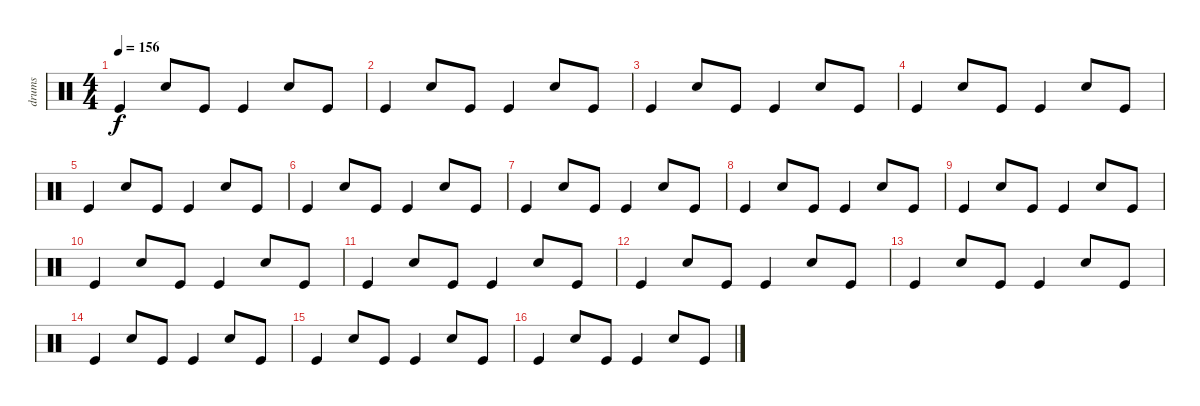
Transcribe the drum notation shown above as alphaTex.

\track ("drums" "drums") {instrument percussion}
\staff {score}
\articulation defaults
\ts (4 4)
\tempo 156
\clef neutral
\ks c "Kick (hit)".4{dy f} "Snare (hit) 2".8 "Kick (hit)".8 "Kick (hit)".4 "Snare (hit) 2".8 "Kick (hit)".8
|
"Kick (hit)".4 "Snare (hit) 2".8 "Kick (hit)".8 "Kick (hit)".4 "Snare (hit) 2".8 "Kick (hit)".8 |
"Kick (hit)".4 "Snare (hit) 2".8 "Kick (hit)".8 "Kick (hit)".4 "Snare (hit) 2".8 "Kick (hit)".8 |
"Kick (hit)".4 "Snare (hit) 2".8 "Kick (hit)".8 "Kick (hit)".4 "Electric Snare (hit)".8 "Kick (hit)".8 |
"Kick (hit)".4 "Snare (hit) 2".8 "Kick (hit)".8 "Kick (hit)".4 "Snare (hit) 2".8 "Kick (hit)".8 |
"Kick (hit)".4 "Snare (hit) 2".8 "Kick (hit)".8 "Kick (hit)".4 "Snare (hit) 2".8 "Kick (hit)".8 |
"Kick (hit)".4 "Snare (hit) 2".8 "Kick (hit)".8 "Kick (hit)".4 "Snare (hit) 2".8 "Kick (hit)".8 |
"Kick (hit)".4 "Snare (hit) 2".8 "Kick (hit)".8 "Kick (hit)".4 "Electric Snare (hit)".8 "Kick (hit)".8 |
"Kick (hit)".4 "Snare (hit) 2".8 "Kick (hit)".8 "Kick (hit)".4 "Snare (hit) 2".8 "Kick (hit)".8 |
"Kick (hit)".4 "Snare (hit) 2".8 "Kick (hit)".8 "Kick (hit)".4 "Snare (hit) 2".8 "Kick (hit)".8 |
"Kick (hit)".4 "Snare (hit) 2".8 "Kick (hit)".8 "Kick (hit)".4 "Snare (hit) 2".8 "Kick (hit)".8 |
"Kick (hit)".4 "Snare (hit) 2".8 "Kick (hit)".8 "Kick (hit)".4 "Electric Snare (hit)".8 "Kick (hit)".8 |
"Kick (hit)".4 "Snare (hit) 2".8 "Kick (hit)".8 "Kick (hit)".4 "Snare (hit) 2".8 "Kick (hit)".8 |
"Kick (hit)".4 "Snare (hit) 2".8 "Kick (hit)".8 "Kick (hit)".4 "Snare (hit) 2".8 "Kick (hit)".8 |
"Kick (hit)".4 "Snare (hit) 2".8 "Kick (hit)".8 "Kick (hit)".4 "Snare (hit) 2".8 "Kick (hit)".8 |
"Kick (hit)".4 "Snare (hit) 2".8 "Kick (hit)".8 "Kick (hit)".4 "Electric Snare (hit)".8 "Kick (hit)".8
